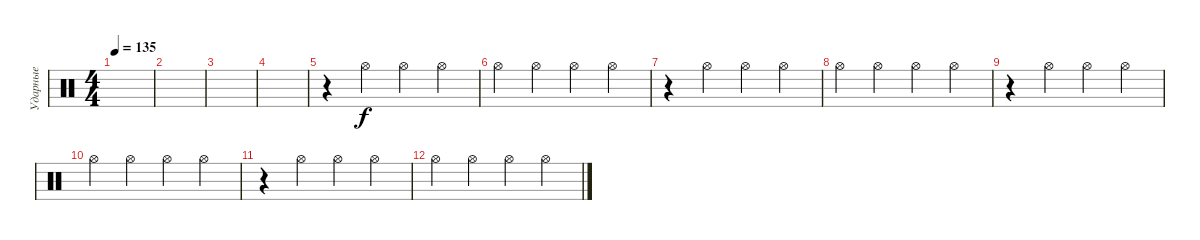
\track ("Ударные" "Ударные") {instrument percussion}
\staff {score}
\articulation defaults
\ts (4 4)
\tempo 135
\clef neutral
\ks c
|
|
|
|
r.4 "Hi-Hat (open)".4 "Hi-Hat (open)".4 "Hi-Hat (open)".4 |
"Hi-Hat (open)".4 "Hi-Hat (open)".4 "Hi-Hat (open)".4 "Hi-Hat (open)".4 |
r.4 "Hi-Hat (open)".4 "Hi-Hat (open)".4 "Hi-Hat (open)".4 |
"Hi-Hat (open)".4 "Hi-Hat (open)".4 "Hi-Hat (open)".4 "Hi-Hat (open)".4 |
r.4 "Hi-Hat (open)".4 "Hi-Hat (open)".4 "Hi-Hat (open)".4 |
"Hi-Hat (open)".4 "Hi-Hat (open)".4 "Hi-Hat (open)".4 "Hi-Hat (open)".4 |
r.4 "Hi-Hat (open)".4 "Hi-Hat (open)".4 "Hi-Hat (open)".4 |
"Hi-Hat (open)".4 "Hi-Hat (open)".4 "Hi-Hat (open)".4 "Hi-Hat (open)".4
